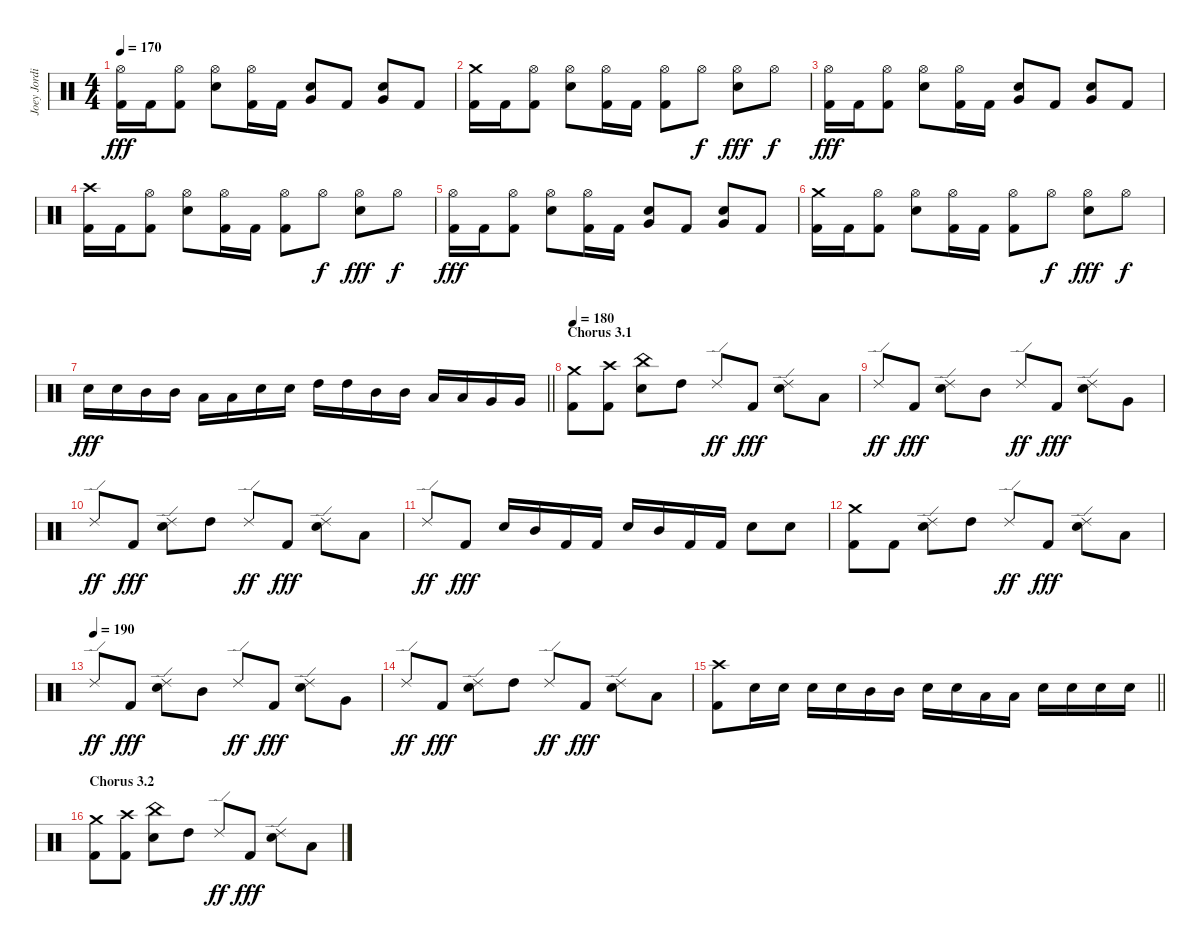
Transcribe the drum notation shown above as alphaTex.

\track ("Joey Jordison" "Joey Jordi") {instrument percussion}
\staff {score}
\articulation defaults
\ts (4 4)
\tempo 170
\clef neutral
\ks c
("Hi-Hat (open)" "Kick (hit) 2").16{dy fff} "Kick (hit) 2".16 ("Hi-Hat (open)" "Kick (hit) 2").8 ("Hi-Hat (open)" "Electric Snare (hit)").8 ("Hi-Hat (open)" "Kick (hit) 2").16 "Kick (hit) 2".16 ("Electric Snare (hit)" "Very Low Tom (hit)").8 "Kick (hit) 2".8 ("Electric Snare (hit)" "Very Low Tom (hit)").8 "Kick (hit) 2".8 |
("Crash medium (hit)" "Kick (hit) 2").16 "Kick (hit) 2".16 ("Hi-Hat (open)" "Kick (hit) 2").8 ("Hi-Hat (open)" "Electric Snare (hit)").8 ("Hi-Hat (open)" "Kick (hit) 2").16 "Kick (hit) 2".16 ("Hi-Hat (open)" "Kick (hit) 2").8 "Hi-Hat (open)".8{dy f} ("Hi-Hat (open)" "Electric Snare (hit)").8{dy fff} "Hi-Hat (open)".8{dy f} |
("Hi-Hat (open)" "Kick (hit) 2").16{dy fff} "Kick (hit) 2".16 ("Hi-Hat (open)" "Kick (hit) 2").8 ("Hi-Hat (open)" "Electric Snare (hit)").8 ("Hi-Hat (open)" "Kick (hit) 2").16 "Kick (hit) 2".16 ("Electric Snare (hit)" "Very Low Tom (hit)").8 "Kick (hit) 2".8 ("Electric Snare (hit)" "Very Low Tom (hit)").8 "Kick (hit) 2".8 |
("Crash high (hit)" "Kick (hit) 2").16 "Kick (hit) 2".16 ("Hi-Hat (open)" "Kick (hit) 2").8 ("Hi-Hat (open)" "Electric Snare (hit)").8 ("Hi-Hat (open)" "Kick (hit) 2").16 "Kick (hit) 2".16 ("Hi-Hat (open)" "Kick (hit) 2").8 "Hi-Hat (open)".8{dy f} ("Hi-Hat (open)" "Electric Snare (hit)").8{dy fff} "Hi-Hat (open)".8{dy f} |
("Hi-Hat (open)" "Kick (hit) 2").16{dy fff} "Kick (hit) 2".16 ("Hi-Hat (open)" "Kick (hit) 2").8 ("Hi-Hat (open)" "Electric Snare (hit)").8 ("Hi-Hat (open)" "Kick (hit) 2").16 "Kick (hit) 2".16 ("Electric Snare (hit)" "Very Low Tom (hit)").8 "Kick (hit) 2".8 ("Electric Snare (hit)" "Very Low Tom (hit)").8 "Kick (hit) 2".8 |
("Crash medium (hit)" "Kick (hit) 2").16 "Kick (hit) 2".16 ("Hi-Hat (open)" "Kick (hit) 2").8 ("Hi-Hat (open)" "Electric Snare (hit)").8 ("Hi-Hat (open)" "Kick (hit) 2").16 "Kick (hit) 2".16 ("Hi-Hat (open)" "Kick (hit) 2").8 "Hi-Hat (open)".8{dy f} ("Hi-Hat (open)" "Electric Snare (hit)").8{dy fff} "Hi-Hat (open)".8{dy f} |
\barLineRight lightlight "Electric Snare (hit)".16{dy fff} "Electric Snare (hit)".16 "Mid Tom (hit)".16 "Mid Tom (hit)".16 "Low Tom (hit)".16 "Low Tom (hit)".16 "Electric Snare (hit)".16 "Electric Snare (hit)".16 "High Tom (hit)".16 "High Tom (hit)".16 "Mid Tom (hit)".16 "Mid Tom (hit)".16 "Low Tom (hit)".16 "Low Tom (hit)".16 "Very Low Tom (hit)".16 "Very Low Tom (hit)".16
|
\section ("" "Chorus 3.1")
\tempo 180
("Crash medium (hit)" "Kick (hit) 2").8 ("Crash high (hit)" "Kick (hit) 2").8 ("China (hit)" "Electric Snare (hit)").8 "High Tom (hit)".8 "Ride (edge) 2".8{dy ff} "Kick (hit) 2".8{dy fff} ("Ride (edge) 2" "Electric Snare (hit)").8 "Low Tom (hit)".8 |
"Ride (edge) 2".8{dy ff} "Kick (hit) 2".8{dy fff} ("Ride (edge) 2" "Electric Snare (hit)").8 "Mid Tom (hit)".8 "Ride (edge) 2".8{dy ff} "Kick (hit) 2".8{dy fff} ("Ride (edge) 2" "Electric Snare (hit)").8 "Very Low Tom (hit)".8 |
"Ride (edge) 2".8{dy ff} "Kick (hit) 2".8{dy fff} ("Ride (edge) 2" "Electric Snare (hit)").8 "High Tom (hit)".8 "Ride (edge) 2".8{dy ff} "Kick (hit) 2".8{dy fff} ("Ride (edge) 2" "Electric Snare (hit)").8 "Low Tom (hit)".8 |
"Ride (edge) 2".8{dy ff} "Kick (hit) 2".8{dy fff} "Electric Snare (hit)".16 "Mid Tom (hit)".16 "Kick (hit) 2".16 "Kick (hit) 2".16 "Electric Snare (hit)".16 "Mid Tom (hit)".16 "Kick (hit) 2".16 "Kick (hit) 2".16 "Electric Snare (hit)".8 "Electric Snare (hit)".8 |
("Crash medium (hit)" "Kick (hit) 2").8 "Kick (hit) 2".8 ("Ride (edge) 2" "Electric Snare (hit)").8 "High Tom (hit)".8 "Ride (edge) 2".8{dy ff} "Kick (hit) 2".8{dy fff} ("Ride (edge) 2" "Electric Snare (hit)").8 "Low Tom (hit)".8 |
\tempo (190)
"Ride (edge) 2".8{dy ff} "Kick (hit) 2".8{dy fff} ("Ride (edge) 2" "Electric Snare (hit)").8 "Mid Tom (hit)".8 "Ride (edge) 2".8{dy ff} "Kick (hit) 2".8{dy fff} ("Ride (edge) 2" "Electric Snare (hit)").8 "Very Low Tom (hit)".8 |
"Ride (edge) 2".8{dy ff} "Kick (hit) 2".8{dy fff} ("Ride (edge) 2" "Electric Snare (hit)").8 "High Tom (hit)".8 "Ride (edge) 2".8{dy ff} "Kick (hit) 2".8{dy fff} ("Ride (edge) 2" "Electric Snare (hit)").8 "Low Tom (hit)".8 |
\barLineRight lightlight
("Crash high (hit)" "Kick (hit) 2").8 "Electric Snare (hit)".16 "Electric Snare (hit)".16 "Electric Snare (hit)".16 "Electric Snare (hit)".16 "Mid Tom (hit)".16 "Mid Tom (hit)".16 "Electric Snare (hit)".16 "Electric Snare (hit)".16 "Low Tom (hit)".16 "Low Tom (hit)".16 "Electric Snare (hit)".16 "Electric Snare (hit)".16 "Electric Snare (hit)".16 "Electric Snare (hit)".16 |
\section ("" "Chorus 3.2")
("Crash medium (hit)" "Kick (hit) 2").8 ("Crash high (hit)" "Kick (hit) 2").8 ("China (hit)" "Electric Snare (hit)").8 "High Tom (hit)".8 "Ride (edge) 2".8{dy ff} "Kick (hit) 2".8{dy fff} ("Ride (edge) 2" "Electric Snare (hit)").8 "Low Tom (hit)".8
